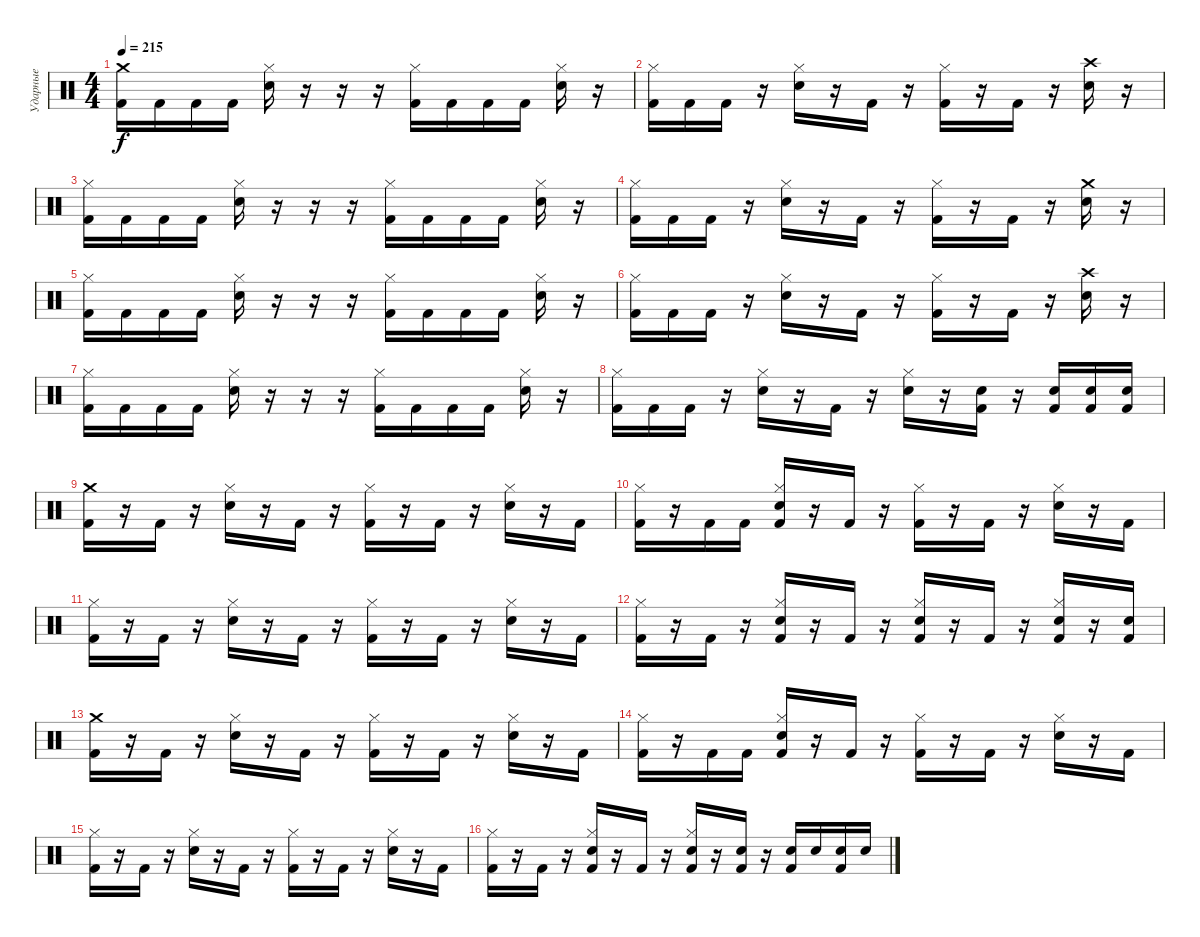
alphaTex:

\track ("Ударные" "Ударные") {instrument percussion}
\staff {score}
\articulation defaults
\ts (4 4)
\tempo 215
\clef neutral
\ks c
("Crash medium (hit)" "Kick (hit) 2").16{dy f} "Kick (hit) 2".16 "Kick (hit) 2".16 "Kick (hit) 2".16 ("Hi-Hat (closed)" "Snare (hit) 2").16 r.16 r.16 r.16 ("Hi-Hat (closed)" "Kick (hit) 2").16 "Kick (hit) 2".16 "Kick (hit) 2".16 "Kick (hit) 2".16 ("Hi-Hat (closed)" "Snare (hit) 2").16 r.16 |
("Hi-Hat (closed)" "Kick (hit) 2").16 "Kick (hit) 2".16 "Kick (hit) 2".16 r.16 ("Hi-Hat (closed)" "Snare (hit) 2").16 r.16 "Kick (hit) 2".16 r.16 ("Hi-Hat (closed)" "Kick (hit) 2").16 r.16 "Kick (hit) 2".16 r.16 ("Crash high (hit)" "Snare (hit) 2").16 r.16 |
("Hi-Hat (closed)" "Kick (hit) 2").16 "Kick (hit) 2".16 "Kick (hit) 2".16 "Kick (hit) 2".16 ("Hi-Hat (closed)" "Snare (hit) 2").16 r.16 r.16 r.16 ("Hi-Hat (closed)" "Kick (hit) 2").16 "Kick (hit) 2".16 "Kick (hit) 2".16 "Kick (hit) 2".16 ("Hi-Hat (closed)" "Snare (hit) 2").16 r.16 |
("Hi-Hat (closed)" "Kick (hit) 2").16 "Kick (hit) 2".16 "Kick (hit) 2".16 r.16 ("Hi-Hat (closed)" "Snare (hit) 2").16 r.16 "Kick (hit) 2".16 r.16 ("Hi-Hat (closed)" "Kick (hit) 2").16 r.16 "Kick (hit) 2".16 r.16 ("Crash medium (hit)" "Snare (hit) 2").16 r.16 |
("Hi-Hat (closed)" "Kick (hit) 2").16 "Kick (hit) 2".16 "Kick (hit) 2".16 "Kick (hit) 2".16 ("Hi-Hat (closed)" "Snare (hit) 2").16 r.16 r.16 r.16 ("Hi-Hat (closed)" "Kick (hit) 2").16 "Kick (hit) 2".16 "Kick (hit) 2".16 "Kick (hit) 2".16 ("Hi-Hat (closed)" "Snare (hit) 2").16 r.16 |
("Hi-Hat (closed)" "Kick (hit) 2").16 "Kick (hit) 2".16 "Kick (hit) 2".16 r.16 ("Hi-Hat (closed)" "Snare (hit) 2").16 r.16 "Kick (hit) 2".16 r.16 ("Hi-Hat (closed)" "Kick (hit) 2").16 r.16 "Kick (hit) 2".16 r.16 ("Crash high (hit)" "Snare (hit) 2").16 r.16 |
("Hi-Hat (closed)" "Kick (hit) 2").16 "Kick (hit) 2".16 "Kick (hit) 2".16 "Kick (hit) 2".16 ("Hi-Hat (closed)" "Snare (hit) 2").16 r.16 r.16 r.16 ("Hi-Hat (closed)" "Kick (hit) 2").16 "Kick (hit) 2".16 "Kick (hit) 2".16 "Kick (hit) 2".16 ("Hi-Hat (closed)" "Snare (hit) 2").16 r.16 |
("Hi-Hat (closed)" "Kick (hit) 2").16 "Kick (hit) 2".16 "Kick (hit) 2".16 r.16 ("Hi-Hat (closed)" "Snare (hit) 2").16 r.16 "Kick (hit) 2".16 r.16 ("Hi-Hat (closed)" "Snare (hit) 2").16 r.16 ("Snare (hit) 2" "Kick (hit) 2").16 r.16 ("Snare (hit) 2" "Kick (hit) 2").16 ("Snare (hit) 2" "Kick (hit) 2").16 ("Snare (hit) 2" "Kick (hit) 2").16 |
("Crash medium (hit)" "Kick (hit) 2").16 r.16 "Kick (hit) 2".16 r.16 ("Hi-Hat (closed)" "Snare (hit) 2").16 r.16 "Kick (hit) 2".16 r.16 ("Hi-Hat (closed)" "Kick (hit) 2").16 r.16 "Kick (hit) 2".16 r.16 ("Hi-Hat (closed)" "Snare (hit) 2").16 r.16 "Kick (hit) 2".16 |
("Hi-Hat (closed)" "Kick (hit) 2").16 r.16 "Kick (hit) 2".16 "Kick (hit) 2".16 ("Hi-Hat (closed)" "Snare (hit) 2" "Kick (hit) 2").16 r.16 "Kick (hit) 2".16 r.16 ("Hi-Hat (closed)" "Kick (hit) 2").16 r.16 "Kick (hit) 2".16 r.16 ("Hi-Hat (closed)" "Snare (hit) 2").16 r.16 "Kick (hit) 2".16 |
("Hi-Hat (closed)" "Kick (hit) 2").16 r.16 "Kick (hit) 2".16 r.16 ("Hi-Hat (closed)" "Snare (hit) 2").16 r.16 "Kick (hit) 2".16 r.16 ("Hi-Hat (closed)" "Kick (hit) 2").16 r.16 "Kick (hit) 2".16 r.16 ("Hi-Hat (closed)" "Snare (hit) 2").16 r.16 "Kick (hit) 2".16 |
("Hi-Hat (closed)" "Kick (hit) 2").16 r.16 "Kick (hit) 2".16 r.16 ("Hi-Hat (closed)" "Snare (hit) 2" "Kick (hit) 2").16 r.16 "Kick (hit) 2".16 r.16 ("Hi-Hat (closed)" "Snare (hit) 2" "Kick (hit) 2").16 r.16 "Kick (hit) 2".16 r.16 ("Hi-Hat (closed)" "Snare (hit) 2" "Kick (hit) 2").16 r.16 ("Snare (hit) 2" "Kick (hit) 2").16 |
("Crash medium (hit)" "Kick (hit) 2").16 r.16 "Kick (hit) 2".16 r.16 ("Hi-Hat (closed)" "Snare (hit) 2").16 r.16 "Kick (hit) 2".16 r.16 ("Hi-Hat (closed)" "Kick (hit) 2").16 r.16 "Kick (hit) 2".16 r.16 ("Hi-Hat (closed)" "Snare (hit) 2").16 r.16 "Kick (hit) 2".16 |
("Hi-Hat (closed)" "Kick (hit) 2").16 r.16 "Kick (hit) 2".16 "Kick (hit) 2".16 ("Hi-Hat (closed)" "Snare (hit) 2" "Kick (hit) 2").16 r.16 "Kick (hit) 2".16 r.16 ("Hi-Hat (closed)" "Kick (hit) 2").16 r.16 "Kick (hit) 2".16 r.16 ("Hi-Hat (closed)" "Snare (hit) 2").16 r.16 "Kick (hit) 2".16 |
("Hi-Hat (closed)" "Kick (hit) 2").16 r.16 "Kick (hit) 2".16 r.16 ("Hi-Hat (closed)" "Snare (hit) 2").16 r.16 "Kick (hit) 2".16 r.16 ("Hi-Hat (closed)" "Kick (hit) 2").16 r.16 "Kick (hit) 2".16 r.16 ("Hi-Hat (closed)" "Snare (hit) 2").16 r.16 "Kick (hit) 2".16 |
("Hi-Hat (closed)" "Kick (hit) 2").16 r.16 "Kick (hit) 2".16 r.16 ("Hi-Hat (closed)" "Snare (hit) 2" "Kick (hit) 2").16 r.16 "Kick (hit) 2".16 r.16 ("Hi-Hat (closed)" "Snare (hit) 2" "Kick (hit) 2").16 r.16 ("Snare (hit) 2" "Kick (hit) 2").16 r.16 ("Snare (hit) 2" "Kick (hit) 2").16 "Snare (hit) 2".16 ("Snare (hit) 2" "Kick (hit) 2").16 "Snare (hit) 2".16
